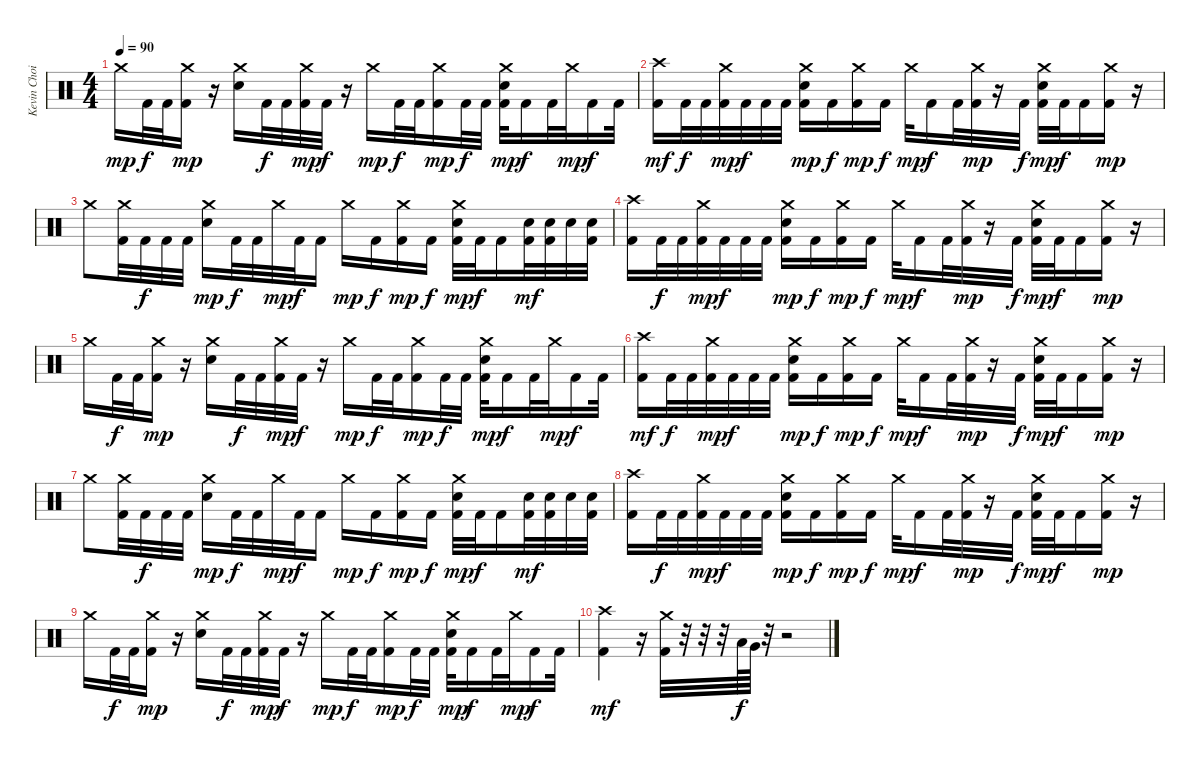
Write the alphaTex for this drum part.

\track ("Kevin Choiral" "Kevin Choi") {instrument percussion}
\staff
\articulation defaults
\ts (4 4)
\tempo 90
\clef neutral
\ks c "Crash medium (hit)".16{dy mp} "Kick (hit) 2".32{dy f} "Kick (hit) 2".32
("Crash medium (hit)" "Kick (hit) 2").16{dy mp} r.16 ("Crash medium (hit)" "Electric Snare (hit)").16 "Kick (hit) 2".32{dy f} "Kick (hit) 2".32 ("Crash medium (hit)" "Kick (hit) 2").32{dy mp} "Kick (hit) 2".32{dy f} r.16 "Crash medium (hit)".16{dy mp} "Kick (hit) 2".32{dy f} "Kick (hit) 2".32 ("Crash medium (hit)" "Kick (hit) 2").16{dy mp} "Kick (hit) 2".32{dy f} "Kick (hit) 2".32 ("Crash medium (hit)" "Electric Snare (hit)" "Kick (hit) 2").32{dy mp} "Kick (hit) 2".16{dy f} "Kick (hit) 2".32 "Crash medium (hit)".32{dy mp} "Kick (hit) 2".16{dy f} "Kick (hit) 2".32 |
("Crash high (hit)" "Kick (hit) 2").16{dy mf} "Kick (hit) 2".32{dy f} "Kick (hit) 2".32 ("Crash medium (hit)" "Kick (hit) 2").32{dy mp} "Kick (hit) 2".32{dy f} "Kick (hit) 2".32 "Kick (hit) 2".32 ("Crash medium (hit)" "Electric Snare (hit)" "Kick (hit) 2").16{dy mp} "Kick (hit) 2".16{dy f} ("Crash medium (hit)" "Kick (hit) 2").16{dy mp} "Kick (hit) 2".16{dy f} "Crash medium (hit)".32{dy mp} "Kick (hit) 2".16{dy f} "Kick (hit) 2".32 ("Crash medium (hit)" "Kick (hit) 2").32{dy mp} r.16 "Kick (hit) 2".32{dy f} ("Crash medium (hit)" "Electric Snare (hit)" "Kick (hit) 2").32{dy mp} "Kick (hit) 2".32{dy f} "Kick (hit) 2".16 ("Crash medium (hit)" "Kick (hit) 2").16{dy mp} r.16 |
"Crash medium (hit)".8 ("Crash medium (hit)" "Kick (hit) 2").32 "Kick (hit) 2".32{dy f} "Kick (hit) 2".32 "Kick (hit) 2".32 ("Crash medium (hit)" "Electric Snare (hit)").16{dy mp} "Kick (hit) 2".32{dy f} "Kick (hit) 2".32 "Crash medium (hit)".32{dy mp} "Kick (hit) 2".32{dy f} "Kick (hit) 2".16 "Crash medium (hit)".16{dy mp} "Kick (hit) 2".16{dy f} ("Crash medium (hit)" "Kick (hit) 2").16{dy mp} "Kick (hit) 2".16{dy f} ("Crash medium (hit)" "Electric Snare (hit)" "Kick (hit) 2").32{dy mp} "Kick (hit) 2".32{dy f} "Kick (hit) 2".16 ("Electric Snare (hit)" "Kick (hit) 2").32{dy mf} ("Electric Snare (hit)" "Kick (hit) 2").32 "Electric Snare (hit)".32 ("Electric Snare (hit)" "Kick (hit) 2").32 |
("Crash high (hit)" "Kick (hit) 2").16 "Kick (hit) 2".32{dy f} "Kick (hit) 2".32 ("Crash medium (hit)" "Kick (hit) 2").32{dy mp} "Kick (hit) 2".32{dy f} "Kick (hit) 2".32 "Kick (hit) 2".32 ("Crash medium (hit)" "Electric Snare (hit)" "Kick (hit) 2").16{dy mp} "Kick (hit) 2".16{dy f} ("Crash medium (hit)" "Kick (hit) 2").16{dy mp} "Kick (hit) 2".16{dy f} "Crash medium (hit)".32{dy mp} "Kick (hit) 2".16{dy f} "Kick (hit) 2".32 ("Crash medium (hit)" "Kick (hit) 2").32{dy mp} r.16 "Kick (hit) 2".32{dy f} ("Crash medium (hit)" "Electric Snare (hit)" "Kick (hit) 2").32{dy mp} "Kick (hit) 2".32{dy f} "Kick (hit) 2".16 ("Crash medium (hit)" "Kick (hit) 2").16{dy mp} r.16 |
"Crash medium (hit)".16 "Kick (hit) 2".32{dy f} "Kick (hit) 2".32 ("Crash medium (hit)" "Kick (hit) 2").16{dy mp} r.16 ("Crash medium (hit)" "Electric Snare (hit)").16 "Kick (hit) 2".32{dy f} "Kick (hit) 2".32 ("Crash medium (hit)" "Kick (hit) 2").32{dy mp} "Kick (hit) 2".32{dy f} r.16 "Crash medium (hit)".16{dy mp} "Kick (hit) 2".32{dy f} "Kick (hit) 2".32 ("Crash medium (hit)" "Kick (hit) 2").16{dy mp} "Kick (hit) 2".32{dy f} "Kick (hit) 2".32 ("Crash medium (hit)" "Electric Snare (hit)" "Kick (hit) 2").32{dy mp} "Kick (hit) 2".16{dy f} "Kick (hit) 2".32 "Crash medium (hit)".32{dy mp} "Kick (hit) 2".16{dy f} "Kick (hit) 2".32 |
("Crash high (hit)" "Kick (hit) 2").16{dy mf} "Kick (hit) 2".32{dy f} "Kick (hit) 2".32 ("Crash medium (hit)" "Kick (hit) 2").32{dy mp} "Kick (hit) 2".32{dy f} "Kick (hit) 2".32 "Kick (hit) 2".32 ("Crash medium (hit)" "Electric Snare (hit)" "Kick (hit) 2").16{dy mp} "Kick (hit) 2".16{dy f} ("Crash medium (hit)" "Kick (hit) 2").16{dy mp} "Kick (hit) 2".16{dy f} "Crash medium (hit)".32{dy mp} "Kick (hit) 2".16{dy f} "Kick (hit) 2".32 ("Crash medium (hit)" "Kick (hit) 2").32{dy mp} r.16 "Kick (hit) 2".32{dy f} ("Crash medium (hit)" "Electric Snare (hit)" "Kick (hit) 2").32{dy mp} "Kick (hit) 2".32{dy f} "Kick (hit) 2".16 ("Crash medium (hit)" "Kick (hit) 2").16{dy mp} r.16 |
"Crash medium (hit)".8 ("Crash medium (hit)" "Kick (hit) 2").32 "Kick (hit) 2".32{dy f} "Kick (hit) 2".32 "Kick (hit) 2".32 ("Crash medium (hit)" "Electric Snare (hit)").16{dy mp} "Kick (hit) 2".32{dy f} "Kick (hit) 2".32 "Crash medium (hit)".32{dy mp} "Kick (hit) 2".32{dy f} "Kick (hit) 2".16 "Crash medium (hit)".16{dy mp} "Kick (hit) 2".16{dy f} ("Crash medium (hit)" "Kick (hit) 2").16{dy mp} "Kick (hit) 2".16{dy f} ("Crash medium (hit)" "Electric Snare (hit)" "Kick (hit) 2").32{dy mp} "Kick (hit) 2".32{dy f} "Kick (hit) 2".16 ("Electric Snare (hit)" "Kick (hit) 2").32{dy mf} ("Electric Snare (hit)" "Kick (hit) 2").32 "Electric Snare (hit)".32 ("Electric Snare (hit)" "Kick (hit) 2").32 |
("Crash high (hit)" "Kick (hit) 2").16 "Kick (hit) 2".32{dy f} "Kick (hit) 2".32 ("Crash medium (hit)" "Kick (hit) 2").32{dy mp} "Kick (hit) 2".32{dy f} "Kick (hit) 2".32 "Kick (hit) 2".32 ("Crash medium (hit)" "Electric Snare (hit)" "Kick (hit) 2").16{dy mp} "Kick (hit) 2".16{dy f} ("Crash medium (hit)" "Kick (hit) 2").16{dy mp} "Kick (hit) 2".16{dy f} "Crash medium (hit)".32{dy mp} "Kick (hit) 2".16{dy f} "Kick (hit) 2".32 ("Crash medium (hit)" "Kick (hit) 2").32{dy mp} r.16 "Kick (hit) 2".32{dy f} ("Crash medium (hit)" "Electric Snare (hit)" "Kick (hit) 2").32{dy mp} "Kick (hit) 2".32{dy f} "Kick (hit) 2".16 ("Crash medium (hit)" "Kick (hit) 2").16{dy mp} r.16 |
"Crash medium (hit)".16 "Kick (hit) 2".32{dy f} "Kick (hit) 2".32 ("Crash medium (hit)" "Kick (hit) 2").16{dy mp} r.16 ("Crash medium (hit)" "Electric Snare (hit)").16 "Kick (hit) 2".32{dy f} "Kick (hit) 2".32 ("Crash medium (hit)" "Kick (hit) 2").32{dy mp} "Kick (hit) 2".32{dy f} r.16 "Crash medium (hit)".16{dy mp} "Kick (hit) 2".32{dy f} "Kick (hit) 2".32 ("Crash medium (hit)" "Kick (hit) 2").16{dy mp} "Kick (hit) 2".32{dy f} "Kick (hit) 2".32 ("Crash medium (hit)" "Electric Snare (hit)" "Kick (hit) 2").32{dy mp} "Kick (hit) 2".16{dy f} "Kick (hit) 2".32 "Crash medium (hit)".32{dy mp} "Kick (hit) 2".16{dy f} "Kick (hit) 2".32 |
("Crash high (hit)" "Kick (hit) 2").4{dy mf} r.16 ("Crash medium (hit)" "Kick (hit) 2").32 r.32 r.32 r.32 "Low Tom (hit)".64{dy f} "Very Low Tom (hit)".64 r.32 r.2
